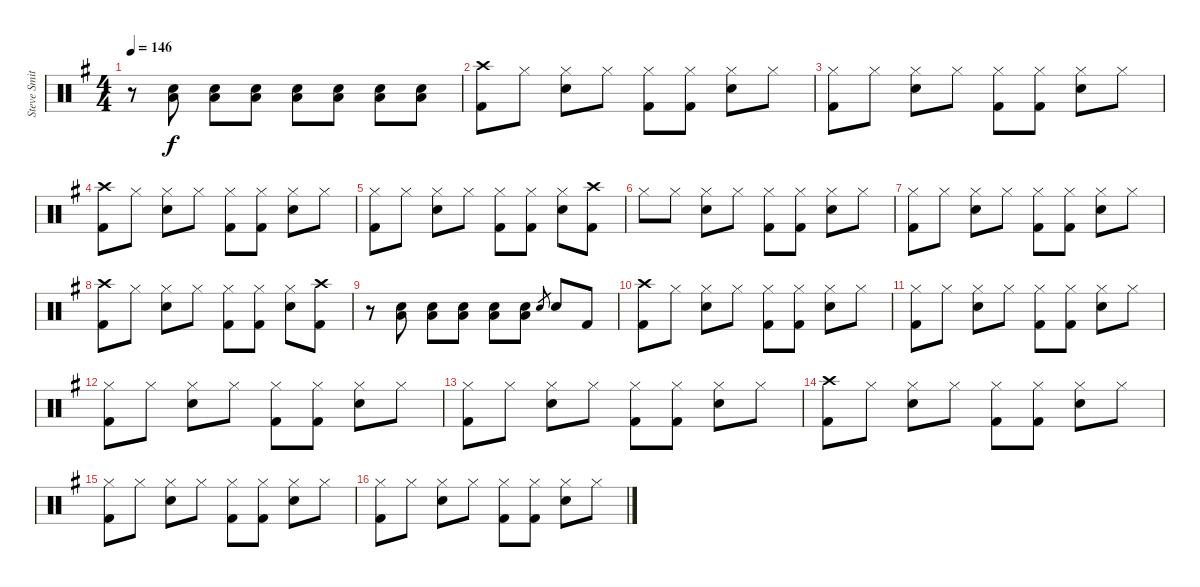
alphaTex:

\track ("Steve Smith" "Steve Smit") {instrument percussion}
\staff {score}
\articulation defaults
\ts (4 4)
\tempo 146
\clef neutral
\ks g
r.8{dy f} ("Snare (hit) 2" "Low Tom (hit)").8 ("Snare (hit) 2" "Low Tom (hit)").8 ("Snare (hit) 2" "Low Tom (hit)").8 ("Snare (hit) 2" "Low Tom (hit)").8 ("Snare (hit) 2" "Low Tom (hit)").8 ("Snare (hit) 2" "Low Tom (hit)").8 ("Snare (hit) 2" "Low Tom (hit)").8 |
("Crash high (hit)" "Kick (hit) 2").8 "Hi-Hat (closed)".8 ("Hi-Hat (closed)" "Snare (hit) 2").8 "Hi-Hat (closed)".8 ("Hi-Hat (closed)" "Kick (hit) 2").8 ("Hi-Hat (closed)" "Kick (hit) 2").8 ("Hi-Hat (closed)" "Snare (hit) 2").8 "Hi-Hat (closed)".8 |
("Hi-Hat (closed)" "Kick (hit) 2").8 "Hi-Hat (closed)".8 ("Hi-Hat (closed)" "Snare (hit) 2").8 "Hi-Hat (closed)".8 ("Hi-Hat (closed)" "Kick (hit) 2").8 ("Hi-Hat (closed)" "Kick (hit) 2").8 ("Hi-Hat (closed)" "Snare (hit) 2").8 "Hi-Hat (closed)".8 |
("Crash high (hit)" "Kick (hit) 2").8 "Hi-Hat (closed)".8 ("Hi-Hat (closed)" "Snare (hit) 2").8 "Hi-Hat (closed)".8 ("Hi-Hat (closed)" "Kick (hit) 2").8 ("Hi-Hat (closed)" "Kick (hit) 2").8 ("Hi-Hat (closed)" "Snare (hit) 2").8 "Hi-Hat (closed)".8 |
("Hi-Hat (closed)" "Kick (hit) 2").8 "Hi-Hat (closed)".8 ("Hi-Hat (closed)" "Snare (hit) 2").8 "Hi-Hat (closed)".8 ("Hi-Hat (closed)" "Kick (hit) 2").8 ("Hi-Hat (closed)" "Kick (hit) 2").8 ("Hi-Hat (closed)" "Snare (hit) 2").8 ("Crash high (hit)" "Kick (hit) 2").8 |
"Hi-Hat (closed)".8 "Hi-Hat (closed)".8 ("Hi-Hat (closed)" "Snare (hit) 2").8 "Hi-Hat (closed)".8 ("Hi-Hat (closed)" "Kick (hit) 2").8 ("Hi-Hat (closed)" "Kick (hit) 2").8 ("Hi-Hat (closed)" "Snare (hit) 2").8 "Hi-Hat (closed)".8 |
("Hi-Hat (closed)" "Kick (hit) 2").8 "Hi-Hat (closed)".8 ("Hi-Hat (closed)" "Snare (hit) 2").8 "Hi-Hat (closed)".8 ("Hi-Hat (closed)" "Kick (hit) 2").8 ("Hi-Hat (closed)" "Kick (hit) 2").8 ("Hi-Hat (closed)" "Snare (hit) 2").8 "Hi-Hat (closed)".8 |
("Crash high (hit)" "Kick (hit) 2").8 "Hi-Hat (closed)".8 ("Hi-Hat (closed)" "Snare (hit) 2").8 "Hi-Hat (closed)".8 ("Hi-Hat (closed)" "Kick (hit) 2").8 ("Hi-Hat (closed)" "Kick (hit) 2").8 ("Hi-Hat (closed)" "Snare (hit) 2").8 ("Crash high (hit)" "Kick (hit) 2").8 |
r.8 ("Snare (hit) 2" "Low Tom (hit)").8 ("Snare (hit) 2" "Low Tom (hit)").8 ("Snare (hit) 2" "Low Tom (hit)").8 ("Snare (hit) 2" "Low Tom (hit)").8 ("Snare (hit) 2" "Low Tom (hit)").8 "Snare (hit) 2".8{gr} "Snare (hit) 2".8 "Kick (hit) 2".8 |
("Crash high (hit)" "Kick (hit) 2").8 "Hi-Hat (closed)".8 ("Hi-Hat (closed)" "Snare (hit) 2").8 "Hi-Hat (closed)".8 ("Hi-Hat (closed)" "Kick (hit) 2").8 ("Hi-Hat (closed)" "Kick (hit) 2").8 ("Hi-Hat (closed)" "Snare (hit) 2").8 "Hi-Hat (closed)".8 |
("Hi-Hat (closed)" "Kick (hit) 2").8 "Hi-Hat (closed)".8 ("Hi-Hat (closed)" "Snare (hit) 2").8 "Hi-Hat (closed)".8 ("Hi-Hat (closed)" "Kick (hit) 2").8 ("Hi-Hat (closed)" "Kick (hit) 2").8 ("Hi-Hat (closed)" "Snare (hit) 2").8 "Hi-Hat (closed)".8 |
("Hi-Hat (closed)" "Kick (hit) 2").8 "Hi-Hat (closed)".8 ("Hi-Hat (closed)" "Snare (hit) 2").8 "Hi-Hat (closed)".8 ("Hi-Hat (closed)" "Kick (hit) 2").8 ("Hi-Hat (closed)" "Kick (hit) 2").8 ("Hi-Hat (closed)" "Snare (hit) 2").8 "Hi-Hat (closed)".8 |
("Hi-Hat (closed)" "Kick (hit) 2").8 "Hi-Hat (closed)".8 ("Hi-Hat (closed)" "Snare (hit) 2").8 "Hi-Hat (closed)".8 ("Hi-Hat (closed)" "Kick (hit) 2").8 ("Hi-Hat (closed)" "Kick (hit) 2").8 ("Hi-Hat (closed)" "Snare (hit) 2").8 "Hi-Hat (closed)".8 |
("Crash high (hit)" "Kick (hit) 2").8 "Hi-Hat (closed)".8 ("Hi-Hat (closed)" "Snare (hit) 2").8 "Hi-Hat (closed)".8 ("Hi-Hat (closed)" "Kick (hit) 2").8 ("Hi-Hat (closed)" "Kick (hit) 2").8 ("Hi-Hat (closed)" "Snare (hit) 2").8 "Hi-Hat (closed)".8 |
("Hi-Hat (closed)" "Kick (hit) 2").8 "Hi-Hat (closed)".8 ("Hi-Hat (closed)" "Snare (hit) 2").8 "Hi-Hat (closed)".8 ("Hi-Hat (closed)" "Kick (hit) 2").8 ("Hi-Hat (closed)" "Kick (hit) 2").8 ("Hi-Hat (closed)" "Snare (hit) 2").8 "Hi-Hat (closed)".8 |
("Hi-Hat (closed)" "Kick (hit) 2").8 "Hi-Hat (closed)".8 ("Hi-Hat (closed)" "Snare (hit) 2").8 "Hi-Hat (closed)".8 ("Hi-Hat (closed)" "Kick (hit) 2").8 ("Hi-Hat (closed)" "Kick (hit) 2").8 ("Hi-Hat (closed)" "Snare (hit) 2").8 "Hi-Hat (closed)".8
